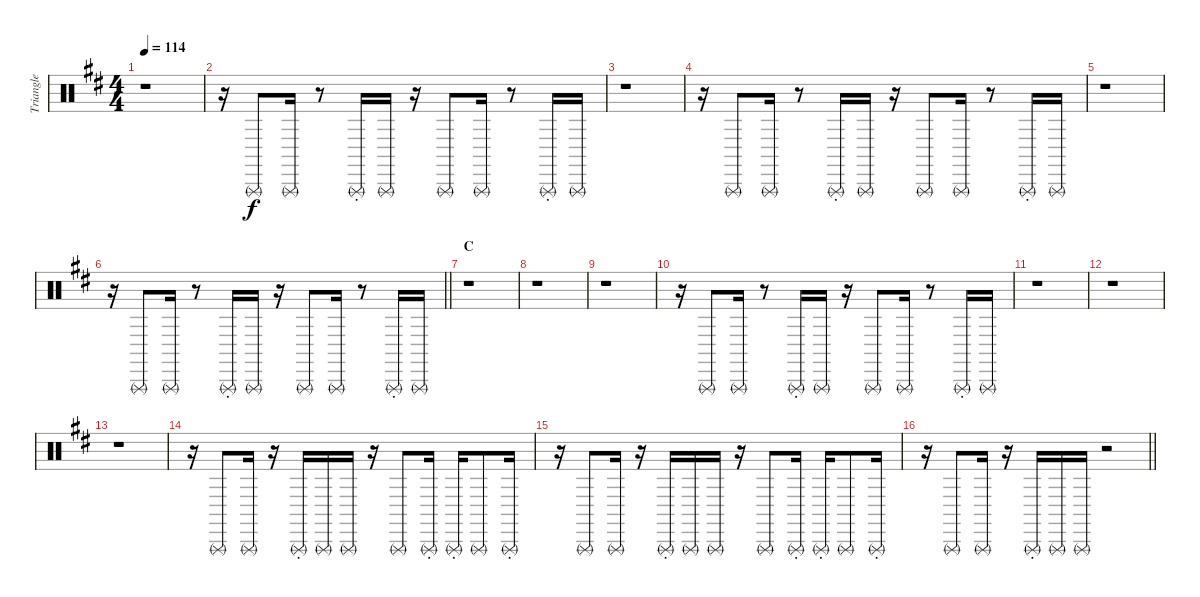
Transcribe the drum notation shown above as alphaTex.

\track ("Triangle" "Triangle") {instrument percussion}
\staff {score}
\articulation defaults
\ts (4 4)
\tempo 114
\clef neutral
\ks d
r.1{dy f} |
r.16 "Triangle (rnute)".8 "Triangle (rnute)".16 r.8 "Triangle (rnute)"{st}.16 "Triangle (rnute)".16 r.16 "Triangle (rnute)".8 "Triangle (rnute)".16 r.8 "Triangle (rnute)"{st}.16 "Triangle (rnute)".16 |
r.1 |
r.16 "Triangle (rnute)".8 "Triangle (rnute)".16 r.8 "Triangle (rnute)"{st}.16 "Triangle (rnute)".16 r.16 "Triangle (rnute)".8 "Triangle (rnute)".16 r.8 "Triangle (rnute)"{st}.16 "Triangle (rnute)".16 |
r.1 |
\barLineRight lightlight
r.16 "Triangle (rnute)".8 "Triangle (rnute)".16 r.8 "Triangle (rnute)"{st}.16 "Triangle (rnute)".16 r.16 "Triangle (rnute)".8 "Triangle (rnute)".16 r.8 "Triangle (rnute)"{st}.16 "Triangle (rnute)".16 |
\section ("" "C")
r.1 |
r.1 |
r.1 |
r.16 "Triangle (rnute)".8 "Triangle (rnute)".16 r.8 "Triangle (rnute)"{st}.16 "Triangle (rnute)".16 r.16 "Triangle (rnute)".8 "Triangle (rnute)".16 r.8 "Triangle (rnute)"{st}.16 "Triangle (rnute)".16 |
r.1 |
r.1 |
r.1 |
r.16 "Triangle (rnute)".8 "Triangle (rnute)".16 r.16 "Triangle (rnute)"{st}.16 "Triangle (rnute)".16 "Triangle (rnute)".16 r.16 "Triangle (rnute)".8 "Triangle (rnute)"{st}.16 "Triangle (rnute)"{st}.16 "Triangle (rnute)".8 "Triangle (rnute)"{st}.16 |
r.16 "Triangle (rnute)".8 "Triangle (rnute)".16 r.16 "Triangle (rnute)"{st}.16 "Triangle (rnute)".16 "Triangle (rnute)".16 r.16 "Triangle (rnute)".8 "Triangle (rnute)"{st}.16 "Triangle (rnute)"{st}.16 "Triangle (rnute)".8 "Triangle (rnute)"{st}.16 |
\barLineRight lightlight
r.16 "Triangle (rnute)".8 "Triangle (rnute)".16 r.16 "Triangle (rnute)"{st}.16 "Triangle (rnute)".16 "Triangle (rnute)".16 r.2
